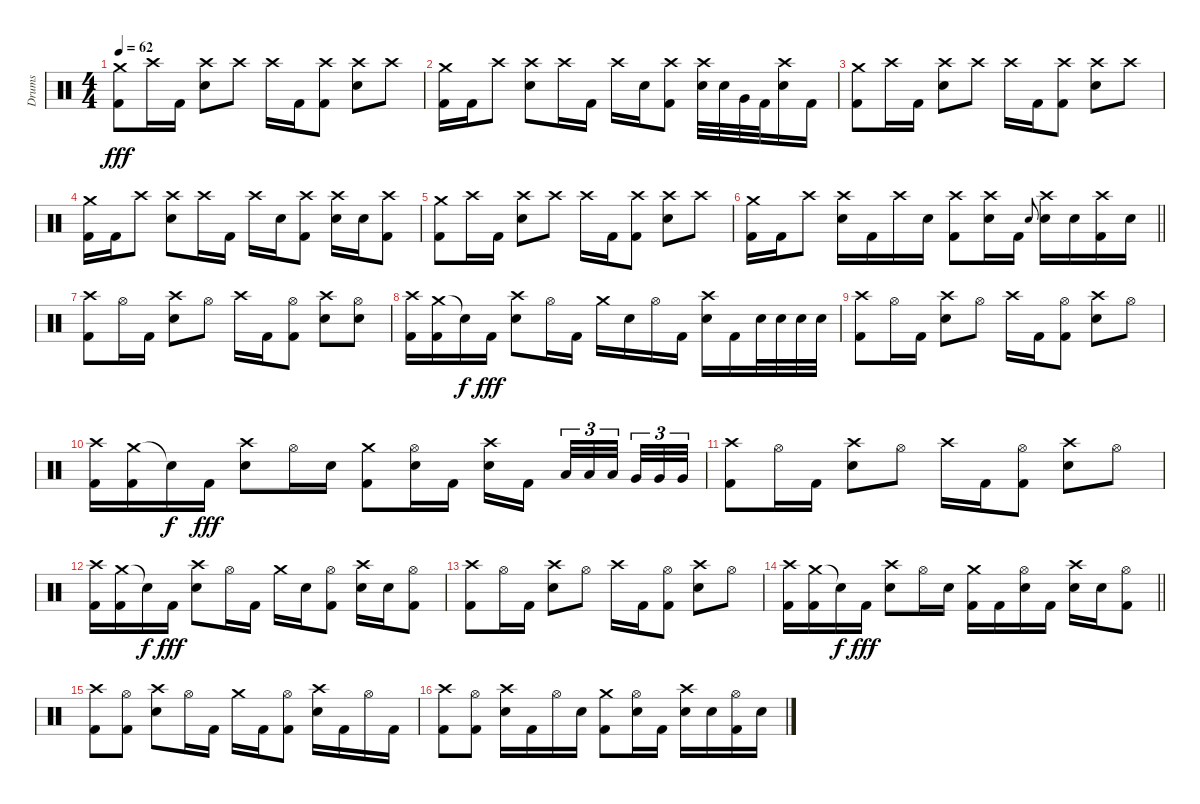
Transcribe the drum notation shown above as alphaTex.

\track ("Drums" "Drums") {instrument percussion}
\staff {score}
\articulation defaults
\ts (4 4)
\tempo 62
\clef neutral
\ks c
("Crash medium (hit)" "Kick (hit) 2").8{dy fff} "Crash high (hit)".16 "Kick (hit) 2".16 ("Crash high (hit)" "Snare (hit) 2").8 "Crash high (hit)".8 "Crash high (hit)".16 "Kick (hit) 2".16 ("Crash high (hit)" "Kick (hit) 2").8 ("Crash high (hit)" "Snare (hit) 2").8 "Crash high (hit)".8 |
("Crash medium (hit)" "Kick (hit) 2").16 "Kick (hit) 2".16 "Crash high (hit)".8 ("Crash high (hit)" "Snare (hit) 2").8 "Crash high (hit)".16 "Kick (hit) 2".16 "Crash high (hit)".16 "Snare (hit) 2".16 ("Crash high (hit)" "Kick (hit) 2").8 ("Crash high (hit)" "Snare (hit) 2").32 "Snare (hit) 2".32 "Very Low Tom (hit)".32 "Kick (hit) 2".32 ("Crash high (hit)" "Snare (hit) 2").16 "Kick (hit) 2".16 |
("Crash medium (hit)" "Kick (hit) 2").8 "Crash high (hit)".16 "Kick (hit) 2".16 ("Crash high (hit)" "Snare (hit) 2").8 "Crash high (hit)".8 "Crash high (hit)".16 "Kick (hit) 2".16 ("Crash high (hit)" "Kick (hit) 2").8 ("Crash high (hit)" "Snare (hit) 2").8 "Crash high (hit)".8 |
("Crash medium (hit)" "Kick (hit) 2").16 "Kick (hit) 2".16 "Crash high (hit)".8 ("Crash high (hit)" "Snare (hit) 2").8 "Crash high (hit)".16 "Kick (hit) 2".16 "Crash high (hit)".16 "Snare (hit) 2".16 ("Crash high (hit)" "Kick (hit) 2").8 ("Crash high (hit)" "Snare (hit) 2").16 "Snare (hit) 2".16 ("Crash high (hit)" "Kick (hit) 2").8 |
("Crash medium (hit)" "Kick (hit) 2").8 "Crash high (hit)".16 "Kick (hit) 2".16 ("Crash high (hit)" "Snare (hit) 2").8 "Crash high (hit)".8 "Crash high (hit)".16 "Kick (hit) 2".16 ("Crash high (hit)" "Kick (hit) 2").8 ("Crash high (hit)" "Snare (hit) 2").8 "Crash high (hit)".8 |
\barLineRight lightlight
("Crash medium (hit)" "Kick (hit) 2").16 "Kick (hit) 2".16 "Crash high (hit)".8 ("Crash high (hit)" "Snare (hit) 2").16 "Kick (hit) 2".16 "Crash high (hit)".16 "Snare (hit) 2".16 ("Crash high (hit)" "Kick (hit) 2").8 ("Crash high (hit)" "Snare (hit) 2").16 "Kick (hit) 2".16 "Snare (hit) 2".8{gr onbeat} ("Crash high (hit)" "Snare (hit) 2").16 "Snare (hit) 2".16 ("Crash high (hit)" "Kick (hit) 2").16 "Snare (hit) 2".16 |
\section ("" "")
("Crash high (hit)" "Kick (hit) 2").8 "Hi-Hat (open)".16 "Kick (hit) 2".16 ("Crash high (hit)" "Snare (hit) 2").8 "Hi-Hat (open)".8 "Crash high (hit)".16 "Kick (hit) 2".16 ("Hi-Hat (open)" "Kick (hit) 2").8 ("Crash high (hit)" "Snare (hit) 2").8 ("Hi-Hat (open)" "Snare (hit) 2").8 |
("Crash high (hit)" "Kick (hit) 2").16 ("Crash medium (hit)" "Kick (hit) 2").16 "Snare (hit)"{t}.16{dy f} "Kick (hit) 2".16{dy fff} ("Crash high (hit)" "Snare (hit) 2").8 "Hi-Hat (open)".16 "Kick (hit) 2".16 "Crash medium (hit)".16 "Snare (hit) 2".16 "Hi-Hat (open)".16 "Kick (hit) 2".16 ("Crash high (hit)" "Snare (hit) 2").16 "Kick (hit) 2".16 "Snare (hit) 2".32 "Snare (hit) 2".32 "Snare (hit) 2".32 "Snare (hit) 2".32 |
("Crash high (hit)" "Kick (hit) 2").8 "Hi-Hat (open)".16 "Kick (hit) 2".16 ("Crash high (hit)" "Snare (hit) 2").8 "Hi-Hat (open)".8 "Crash high (hit)".16 "Kick (hit) 2".16 ("Hi-Hat (open)" "Kick (hit) 2").8 ("Crash high (hit)" "Snare (hit) 2").8 "Hi-Hat (open)".8 |
("Crash high (hit)" "Kick (hit) 2").16 ("Crash medium (hit)" "Kick (hit) 2").16 "Snare (hit)"{t}.16{dy f} "Kick (hit) 2".16{dy fff} ("Crash high (hit)" "Snare (hit) 2").8 "Hi-Hat (open)".16 "Snare (hit) 2".16 ("Crash medium (hit)" "Kick (hit) 2").8 ("Hi-Hat (open)" "Snare (hit) 2").16 "Kick (hit) 2".16 ("Crash high (hit)" "Snare (hit) 2").16 "Kick (hit) 2".16{beam splitsecondary} "Low Tom (hit)".32{tu (3 2)} "Low Tom (hit)".32{tu (3 2)} "Low Tom (hit)".32{tu (3 2) beam splitsecondary} "Very Low Tom (hit)".32{tu (3 2)} "Very Low Tom (hit)".32{tu (3 2)} "Very Low Tom (hit)".32{tu (3 2)} |
("Crash high (hit)" "Kick (hit) 2").8 "Hi-Hat (open)".16 "Kick (hit) 2".16 ("Crash high (hit)" "Snare (hit) 2").8 "Hi-Hat (open)".8 "Crash high (hit)".16 "Kick (hit) 2".16 ("Hi-Hat (open)" "Kick (hit) 2").8 ("Crash high (hit)" "Snare (hit) 2").8 "Hi-Hat (open)".8 |
("Crash high (hit)" "Kick (hit) 2").16 ("Crash medium (hit)" "Kick (hit) 2").16 "Snare (hit)"{t}.16{dy f} "Kick (hit) 2".16{dy fff} ("Crash high (hit)" "Snare (hit) 2").8 "Hi-Hat (open)".16 "Kick (hit) 2".16 "Crash medium (hit)".16 "Snare (hit) 2".16 ("Hi-Hat (open)" "Kick (hit) 2").8 ("Crash high (hit)" "Snare (hit) 2").16 "Snare (hit) 2".16 ("Hi-Hat (open)" "Kick (hit) 2").8 |
("Crash high (hit)" "Kick (hit) 2").8 "Hi-Hat (open)".16 "Kick (hit) 2".16 ("Crash high (hit)" "Snare (hit) 2").8 "Hi-Hat (open)".8 "Crash high (hit)".16 "Kick (hit) 2".16 ("Hi-Hat (open)" "Kick (hit) 2").8 ("Crash high (hit)" "Snare (hit) 2").8 "Hi-Hat (open)".8 |
\barLineRight lightlight
("Crash high (hit)" "Kick (hit) 2").16 ("Crash medium (hit)" "Kick (hit) 2").16 "Snare (hit)"{t}.16{dy f} "Kick (hit) 2".16{dy fff} ("Crash high (hit)" "Snare (hit) 2").8 "Hi-Hat (open)".16 "Snare (hit) 2".16 ("Crash medium (hit)" "Kick (hit) 2").16 "Kick (hit) 2".16 ("Hi-Hat (open)" "Snare (hit) 2").16 "Kick (hit) 2".16 ("Crash high (hit)" "Snare (hit) 2").16 "Snare (hit) 2".16 ("Hi-Hat (open)" "Kick (hit) 2").8 |
\section ("" "")
("Crash high (hit)" "Kick (hit) 2").8 ("Hi-Hat (open)" "Kick (hit) 2").8 ("Crash high (hit)" "Snare (hit) 2").8 "Hi-Hat (open)".16 "Kick (hit) 2".16 "Crash medium (hit)".16 "Kick (hit) 2".16 ("Hi-Hat (open)" "Kick (hit) 2").8 ("Crash high (hit)" "Snare (hit) 2").16 "Kick (hit) 2".16 "Hi-Hat (open)".16 "Kick (hit) 2".16 |
("Crash high (hit)" "Kick (hit) 2").8 ("Hi-Hat (open)" "Kick (hit) 2").8 ("Crash high (hit)" "Snare (hit) 2").16 "Kick (hit) 2".16 "Hi-Hat (open)".16 "Snare (hit) 2".16 ("Crash medium (hit)" "Kick (hit) 2").8 ("Hi-Hat (open)" "Snare (hit) 2").16 "Kick (hit) 2".16 ("Crash high (hit)" "Snare (hit) 2").16 "Snare (hit) 2".16 ("Hi-Hat (open)" "Kick (hit) 2").16 "Snare (hit) 2".16
